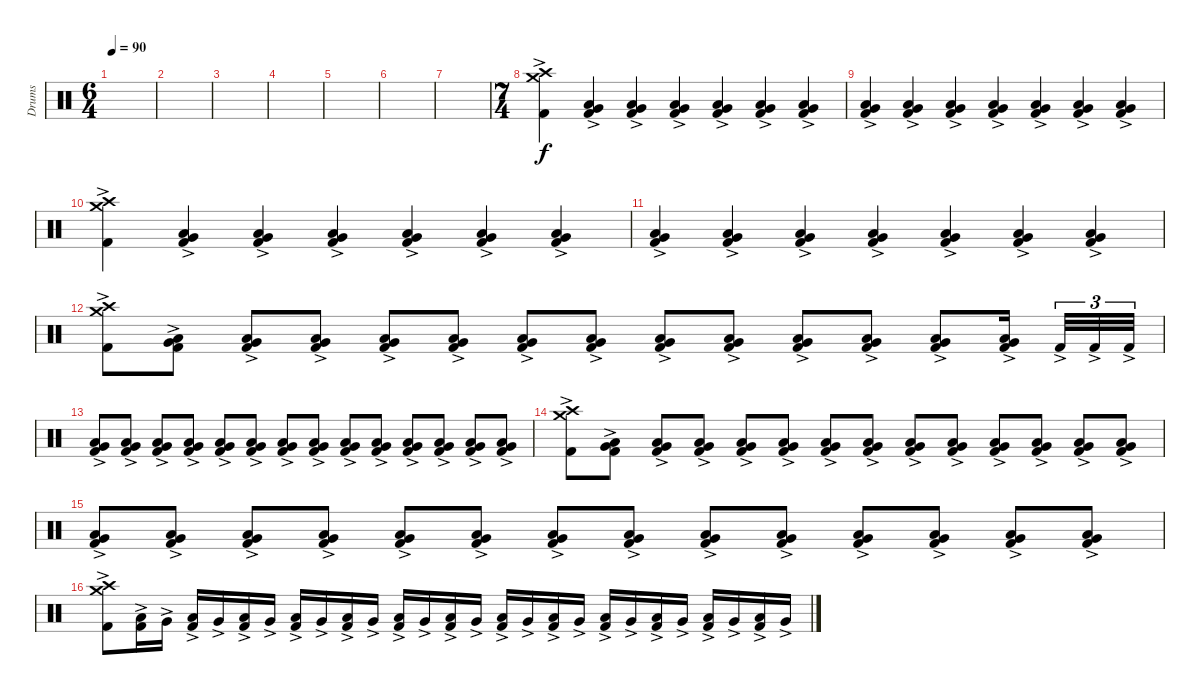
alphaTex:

\track ("Drums" "Drums") {instrument percussion}
\staff {score}
\articulation defaults
\ts (6 4)
\tempo 90
\clef neutral
\ks c
|
|
|
|
|
|
|
\ts (7 4)
("Crash high (hit)"{ac} "Crash medium (hit)"{ac} "Kick (hit) 2"{ac}).4 ("Low Tom (hit)"{ac} "Very Low Tom (hit)"{ac} "Kick (hit) 2"{ac}).4 ("Low Tom (hit)"{ac} "Very Low Tom (hit)"{ac} "Kick (hit) 2"{ac}).4 ("Low Tom (hit)"{ac} "Very Low Tom (hit)"{ac} "Kick (hit) 2"{ac}).4 ("Low Tom (hit)"{ac} "Very Low Tom (hit)"{ac} "Kick (hit) 2"{ac}).4 ("Low Tom (hit)"{ac} "Very Low Tom (hit)"{ac} "Kick (hit) 2"{ac}).4 ("Low Tom (hit)"{ac} "Very Low Tom (hit)"{ac} "Kick (hit) 2"{ac}).4 |
("Low Tom (hit)"{ac} "Very Low Tom (hit)"{ac} "Kick (hit) 2"{ac}).4 ("Low Tom (hit)"{ac} "Very Low Tom (hit)"{ac} "Kick (hit) 2"{ac}).4 ("Low Tom (hit)"{ac} "Very Low Tom (hit)"{ac} "Kick (hit) 2"{ac}).4 ("Low Tom (hit)"{ac} "Very Low Tom (hit)"{ac} "Kick (hit) 2"{ac}).4 ("Low Tom (hit)"{ac} "Very Low Tom (hit)"{ac} "Kick (hit) 2"{ac}).4 ("Low Tom (hit)"{ac} "Very Low Tom (hit)"{ac} "Kick (hit) 2"{ac}).4 ("Low Tom (hit)"{ac} "Very Low Tom (hit)"{ac} "Kick (hit) 2"{ac}).4 |
("Crash high (hit)"{ac} "Crash medium (hit)"{ac} "Kick (hit) 2"{ac}).4 ("Low Tom (hit)"{ac} "Very Low Tom (hit)"{ac} "Kick (hit) 2"{ac}).4 ("Low Tom (hit)"{ac} "Very Low Tom (hit)"{ac} "Kick (hit) 2"{ac}).4 ("Low Tom (hit)"{ac} "Very Low Tom (hit)"{ac} "Kick (hit) 2"{ac}).4 ("Low Tom (hit)"{ac} "Very Low Tom (hit)"{ac} "Kick (hit) 2"{ac}).4 ("Low Tom (hit)"{ac} "Very Low Tom (hit)"{ac} "Kick (hit) 2"{ac}).4 ("Low Tom (hit)"{ac} "Very Low Tom (hit)"{ac} "Kick (hit) 2"{ac}).4 |
("Low Tom (hit)"{ac} "Very Low Tom (hit)"{ac} "Kick (hit) 2"{ac}).4 ("Low Tom (hit)"{ac} "Very Low Tom (hit)"{ac} "Kick (hit) 2"{ac}).4 ("Low Tom (hit)"{ac} "Very Low Tom (hit)"{ac} "Kick (hit) 2"{ac}).4 ("Low Tom (hit)"{ac} "Very Low Tom (hit)"{ac} "Kick (hit) 2"{ac}).4 ("Low Tom (hit)"{ac} "Very Low Tom (hit)"{ac} "Kick (hit) 2"{ac}).4 ("Low Tom (hit)"{ac} "Very Low Tom (hit)"{ac} "Kick (hit) 2"{ac}).4 ("Low Tom (hit)"{ac} "Very Low Tom (hit)"{ac} "Kick (hit) 2"{ac}).4 |
("Crash high (hit)"{ac} "Crash medium (hit)"{ac} "Kick (hit) 2"{ac}).8 ("Low Tom (hit)"{ac} "Very Low Tom (hit)"{ac} "Kick (hit) 2"{ac}).8 ("Low Tom (hit)"{ac} "Very Low Tom (hit)"{ac} "Kick (hit) 2"{ac}).8 ("Low Tom (hit)"{ac} "Very Low Tom (hit)"{ac} "Kick (hit) 2"{ac}).8 ("Low Tom (hit)"{ac} "Very Low Tom (hit)"{ac} "Kick (hit) 2"{ac}).8 ("Low Tom (hit)"{ac} "Very Low Tom (hit)"{ac} "Kick (hit) 2"{ac}).8 ("Low Tom (hit)"{ac} "Very Low Tom (hit)"{ac} "Kick (hit) 2"{ac}).8 ("Low Tom (hit)"{ac} "Very Low Tom (hit)"{ac} "Kick (hit) 2"{ac}).8 ("Low Tom (hit)"{ac} "Very Low Tom (hit)"{ac} "Kick (hit) 2"{ac}).8 ("Low Tom (hit)"{ac} "Very Low Tom (hit)"{ac} "Kick (hit) 2"{ac}).8 ("Low Tom (hit)"{ac} "Very Low Tom (hit)"{ac} "Kick (hit) 2"{ac}).8 ("Low Tom (hit)"{ac} "Very Low Tom (hit)"{ac} "Kick (hit) 2"{ac}).8 ("Low Tom (hit)"{ac} "Very Low Tom (hit)"{ac} "Kick (hit) 2"{ac}).8 ("Low Tom (hit)"{ac} "Very Low Tom (hit)"{ac} "Kick (hit) 2"{ac}).16 "Kick (hit) 2"{ac}.32{tu (3 2)} "Kick (hit) 2"{ac}.32{tu (3 2)} "Kick (hit) 2"{ac}.32{tu (3 2)} |
("Low Tom (hit)"{ac} "Very Low Tom (hit)"{ac} "Kick (hit) 2"{ac}).8 ("Low Tom (hit)"{ac} "Very Low Tom (hit)"{ac} "Kick (hit) 2"{ac}).8 ("Low Tom (hit)"{ac} "Very Low Tom (hit)"{ac} "Kick (hit) 2"{ac}).8 ("Low Tom (hit)"{ac} "Very Low Tom (hit)"{ac} "Kick (hit) 2"{ac}).8 ("Low Tom (hit)"{ac} "Very Low Tom (hit)"{ac} "Kick (hit) 2"{ac}).8 ("Low Tom (hit)"{ac} "Very Low Tom (hit)"{ac} "Kick (hit) 2"{ac}).8 ("Low Tom (hit)"{ac} "Very Low Tom (hit)"{ac} "Kick (hit) 2"{ac}).8 ("Low Tom (hit)"{ac} "Very Low Tom (hit)"{ac} "Kick (hit) 2"{ac}).8 ("Low Tom (hit)"{ac} "Very Low Tom (hit)"{ac} "Kick (hit) 2"{ac}).8 ("Low Tom (hit)"{ac} "Very Low Tom (hit)"{ac} "Kick (hit) 2"{ac}).8 ("Low Tom (hit)"{ac} "Very Low Tom (hit)"{ac} "Kick (hit) 2"{ac}).8 ("Low Tom (hit)"{ac} "Very Low Tom (hit)"{ac} "Kick (hit) 2"{ac}).8 ("Low Tom (hit)"{ac} "Very Low Tom (hit)"{ac} "Kick (hit) 2"{ac}).8 ("Low Tom (hit)"{ac} "Very Low Tom (hit)"{ac} "Kick (hit) 2"{ac}).8 |
("Crash high (hit)"{ac} "Crash medium (hit)"{ac} "Kick (hit) 2"{ac}).8 ("Low Tom (hit)"{ac} "Very Low Tom (hit)"{ac} "Kick (hit) 2"{ac}).8 ("Low Tom (hit)"{ac} "Very Low Tom (hit)"{ac} "Kick (hit) 2"{ac}).8 ("Low Tom (hit)"{ac} "Very Low Tom (hit)"{ac} "Kick (hit) 2"{ac}).8 ("Low Tom (hit)"{ac} "Very Low Tom (hit)"{ac} "Kick (hit) 2"{ac}).8 ("Low Tom (hit)"{ac} "Very Low Tom (hit)"{ac} "Kick (hit) 2"{ac}).8 ("Low Tom (hit)"{ac} "Very Low Tom (hit)"{ac} "Kick (hit) 2"{ac}).8 ("Low Tom (hit)"{ac} "Very Low Tom (hit)"{ac} "Kick (hit) 2"{ac}).8 ("Low Tom (hit)"{ac} "Very Low Tom (hit)"{ac} "Kick (hit) 2"{ac}).8 ("Low Tom (hit)"{ac} "Very Low Tom (hit)"{ac} "Kick (hit) 2"{ac}).8 ("Low Tom (hit)"{ac} "Very Low Tom (hit)"{ac} "Kick (hit) 2"{ac}).8 ("Low Tom (hit)"{ac} "Very Low Tom (hit)"{ac} "Kick (hit) 2"{ac}).8 ("Low Tom (hit)"{ac} "Very Low Tom (hit)"{ac} "Kick (hit) 2"{ac}).8 ("Low Tom (hit)"{ac} "Very Low Tom (hit)"{ac} "Kick (hit) 2"{ac}).8 |
("Low Tom (hit)"{ac} "Very Low Tom (hit)"{ac} "Kick (hit) 2"{ac}).8 ("Low Tom (hit)"{ac} "Very Low Tom (hit)"{ac} "Kick (hit) 2"{ac}).8 ("Low Tom (hit)"{ac} "Very Low Tom (hit)"{ac} "Kick (hit) 2"{ac}).8 ("Low Tom (hit)"{ac} "Very Low Tom (hit)"{ac} "Kick (hit) 2"{ac}).8 ("Low Tom (hit)"{ac} "Very Low Tom (hit)"{ac} "Kick (hit) 2"{ac}).8 ("Low Tom (hit)"{ac} "Very Low Tom (hit)"{ac} "Kick (hit) 2"{ac}).8 ("Low Tom (hit)"{ac} "Very Low Tom (hit)"{ac} "Kick (hit) 2"{ac}).8 ("Low Tom (hit)"{ac} "Very Low Tom (hit)"{ac} "Kick (hit) 2"{ac}).8 ("Low Tom (hit)"{ac} "Very Low Tom (hit)"{ac} "Kick (hit) 2"{ac}).8 ("Low Tom (hit)"{ac} "Very Low Tom (hit)"{ac} "Kick (hit) 2"{ac}).8 ("Low Tom (hit)"{ac} "Very Low Tom (hit)"{ac} "Kick (hit) 2"{ac}).8 ("Low Tom (hit)"{ac} "Very Low Tom (hit)"{ac} "Kick (hit) 2"{ac}).8 ("Low Tom (hit)"{ac} "Very Low Tom (hit)"{ac} "Kick (hit) 2"{ac}).8 ("Low Tom (hit)"{ac} "Very Low Tom (hit)"{ac} "Kick (hit) 2"{ac}).8 |
("Crash high (hit)"{ac} "Crash medium (hit)"{ac} "Kick (hit) 2"{ac}).8 ("Low Tom (hit)"{ac} "Kick (hit) 2"{ac}).16 "Very Low Tom (hit)"{ac}.16 ("Low Tom (hit)"{ac} "Kick (hit) 2"{ac}).16 "Very Low Tom (hit)"{ac}.16 ("Low Tom (hit)"{ac} "Kick (hit) 2"{ac}).16 "Very Low Tom (hit)"{ac}.16 ("Low Tom (hit)"{ac} "Kick (hit) 2"{ac}).16 "Very Low Tom (hit)"{ac}.16 ("Low Tom (hit)"{ac} "Kick (hit) 2"{ac}).16 "Very Low Tom (hit)"{ac}.16 ("Low Tom (hit)"{ac} "Kick (hit) 2"{ac}).16 "Very Low Tom (hit)"{ac}.16 ("Low Tom (hit)"{ac} "Kick (hit) 2"{ac}).16 "Very Low Tom (hit)"{ac}.16 ("Low Tom (hit)"{ac} "Kick (hit) 2"{ac}).16 "Very Low Tom (hit)"{ac}.16 ("Low Tom (hit)"{ac} "Kick (hit) 2"{ac}).16 "Very Low Tom (hit)"{ac}.16 ("Low Tom (hit)"{ac} "Kick (hit) 2"{ac}).16 "Very Low Tom (hit)"{ac}.16 ("Low Tom (hit)"{ac} "Kick (hit) 2"{ac}).16 "Very Low Tom (hit)"{ac}.16 ("Low Tom (hit)"{ac} "Kick (hit) 2"{ac}).16 "Very Low Tom (hit)"{ac}.16 ("Low Tom (hit)"{ac} "Kick (hit) 2"{ac}).16 "Very Low Tom (hit)"{ac}.16
